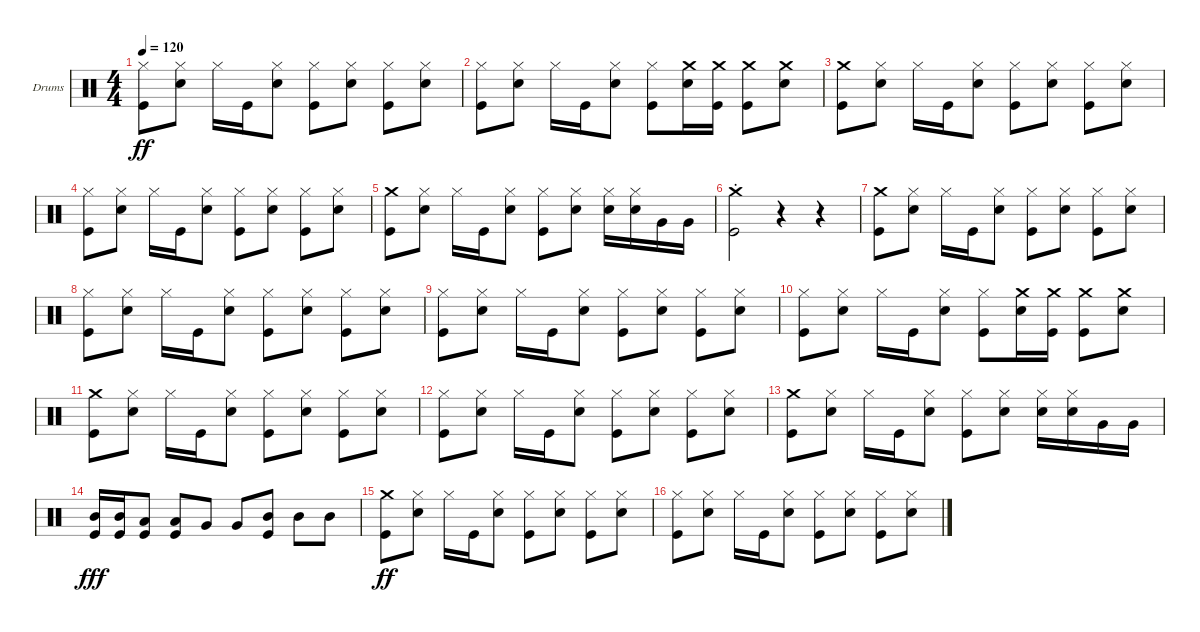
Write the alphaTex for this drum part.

\bracketExtendMode groupsimilarinstruments
\firstSystemTrackNameOrientation horizontal
\otherSystemsTrackNameOrientation horizontal
\track ("Drumkit" "Drums") {instrument percussion}
\staff {score}
\articulation defaults
\ts (4 4)
\tempo 120
\clef neutral
\ks c
("Kick (hit)" "Hi-Hat (closed)").8{dy ff} ("Snare (hit) 2" "Hi-Hat (closed)").8 "Hi-Hat (closed)".16 "Kick (hit)".16 ("Snare (hit) 2" "Hi-Hat (closed)").8 ("Kick (hit)" "Hi-Hat (closed)").8 ("Snare (hit) 2" "Hi-Hat (closed)").8 ("Kick (hit)" "Hi-Hat (closed)").8 ("Snare (hit) 2" "Hi-Hat (closed)").8 |
("Kick (hit)" "Hi-Hat (closed)").8 ("Snare (hit) 2" "Hi-Hat (closed)").8 "Hi-Hat (closed)".16 "Kick (hit)".16 ("Snare (hit) 2" "Hi-Hat (closed)").8 ("Kick (hit)" "Hi-Hat (closed)").8 ("Snare (hit) 2" "Crash medium (hit)").16 ("Kick (hit)" "Crash medium (hit)").16 ("Kick (hit)" "Crash medium (hit)").8 ("Snare (hit) 2" "Crash medium (hit)").8 |
("Kick (hit)" "Crash medium (hit)").8 ("Snare (hit) 2" "Hi-Hat (closed)").8 "Hi-Hat (closed)".16 "Kick (hit)".16 ("Snare (hit) 2" "Hi-Hat (closed)").8 ("Kick (hit)" "Hi-Hat (closed)").8 ("Snare (hit) 2" "Hi-Hat (closed)").8 ("Kick (hit)" "Hi-Hat (closed)").8 ("Snare (hit) 2" "Hi-Hat (closed)").8 |
("Kick (hit)" "Hi-Hat (closed)").8 ("Snare (hit) 2" "Hi-Hat (closed)").8 "Hi-Hat (closed)".16 "Kick (hit)".16 ("Snare (hit) 2" "Hi-Hat (closed)").8 ("Kick (hit)" "Hi-Hat (closed)").8 ("Snare (hit) 2" "Hi-Hat (closed)").8 ("Kick (hit)" "Hi-Hat (closed)").8 ("Snare (hit) 2" "Hi-Hat (closed)").8 |
("Kick (hit)" "Crash medium (hit)").8 ("Snare (hit) 2" "Hi-Hat (closed)").8 "Hi-Hat (closed)".16 "Kick (hit)".16 ("Snare (hit) 2" "Hi-Hat (closed)").8 ("Kick (hit)" "Hi-Hat (closed)").8 ("Snare (hit) 2" "Hi-Hat (closed)").8 ("Snare (hit) 2" "Hi-Hat (closed)").16 ("Snare (hit) 2" "Hi-Hat (closed)").16 "Very Low Tom (hit)".16 "Very Low Tom (hit)".16 |
("Kick (hit)" "Crash medium (hit)"{st}).2 r.4 r.4 |
("Kick (hit)" "Crash medium (hit)").8 ("Snare (hit) 2" "Hi-Hat (closed)").8 "Hi-Hat (closed)".16 "Kick (hit)".16 ("Snare (hit) 2" "Hi-Hat (closed)").8 ("Kick (hit)" "Hi-Hat (closed)").8 ("Snare (hit) 2" "Hi-Hat (closed)").8 ("Kick (hit)" "Hi-Hat (closed)").8 ("Snare (hit) 2" "Hi-Hat (closed)").8 |
("Kick (hit)" "Hi-Hat (closed)").8 ("Snare (hit) 2" "Hi-Hat (closed)").8 "Hi-Hat (closed)".16 "Kick (hit)".16 ("Snare (hit) 2" "Hi-Hat (closed)").8 ("Kick (hit)" "Hi-Hat (closed)").8 ("Snare (hit) 2" "Hi-Hat (closed)").8 ("Kick (hit)" "Hi-Hat (closed)").8 ("Snare (hit) 2" "Hi-Hat (closed)").8 |
("Kick (hit)" "Hi-Hat (closed)").8 ("Snare (hit) 2" "Hi-Hat (closed)").8 "Hi-Hat (closed)".16 "Kick (hit)".16 ("Snare (hit) 2" "Hi-Hat (closed)").8 ("Kick (hit)" "Hi-Hat (closed)").8 ("Snare (hit) 2" "Hi-Hat (closed)").8 ("Kick (hit)" "Hi-Hat (closed)").8 ("Snare (hit) 2" "Hi-Hat (closed)").8 |
("Kick (hit)" "Hi-Hat (closed)").8 ("Snare (hit) 2" "Hi-Hat (closed)").8 "Hi-Hat (closed)".16 "Kick (hit)".16 ("Snare (hit) 2" "Hi-Hat (closed)").8 ("Kick (hit)" "Hi-Hat (closed)").8 ("Snare (hit) 2" "Crash medium (hit)").16 ("Kick (hit)" "Crash medium (hit)").16 ("Kick (hit)" "Crash medium (hit)").8 ("Snare (hit) 2" "Crash medium (hit)").8 |
("Kick (hit)" "Crash medium (hit)").8 ("Snare (hit) 2" "Hi-Hat (closed)").8 "Hi-Hat (closed)".16 "Kick (hit)".16 ("Snare (hit) 2" "Hi-Hat (closed)").8 ("Kick (hit)" "Hi-Hat (closed)").8 ("Snare (hit) 2" "Hi-Hat (closed)").8 ("Kick (hit)" "Hi-Hat (closed)").8 ("Snare (hit) 2" "Hi-Hat (closed)").8 |
("Kick (hit)" "Hi-Hat (closed)").8 ("Snare (hit) 2" "Hi-Hat (closed)").8 "Hi-Hat (closed)".16 "Kick (hit)".16 ("Snare (hit) 2" "Hi-Hat (closed)").8 ("Kick (hit)" "Hi-Hat (closed)").8 ("Snare (hit) 2" "Hi-Hat (closed)").8 ("Kick (hit)" "Hi-Hat (closed)").8 ("Snare (hit) 2" "Hi-Hat (closed)").8 |
("Kick (hit)" "Crash medium (hit)").8 ("Snare (hit) 2" "Hi-Hat (closed)").8 "Hi-Hat (closed)".16 "Kick (hit)".16 ("Snare (hit) 2" "Hi-Hat (closed)").8 ("Kick (hit)" "Hi-Hat (closed)").8 ("Snare (hit) 2" "Hi-Hat (closed)").8 ("Snare (hit) 2" "Hi-Hat (closed)").16 ("Snare (hit) 2" "Hi-Hat (closed)").16 "Very Low Tom (hit)".16 "Very Low Tom (hit)".16 |
("Mid Tom (hit)" "Kick (hit)").16{dy fff} ("Mid Tom (hit)" "Kick (hit)").16 ("Low Tom (hit)" "Kick (hit)").8 ("Low Tom (hit)" "Kick (hit)").8 "Very Low Tom (hit)".8 "Very Low Tom (hit)".8 ("Mid Tom (hit)" "Kick (hit)").8 "Mid Tom (hit)".8 "Mid Tom (hit)".8 |
("Kick (hit)" "Crash medium (hit)").8{dy ff} ("Snare (hit) 2" "Hi-Hat (closed)").8 "Hi-Hat (closed)".16 "Kick (hit)".16 ("Snare (hit) 2" "Hi-Hat (closed)").8 ("Kick (hit)" "Hi-Hat (closed)").8 ("Snare (hit) 2" "Hi-Hat (closed)").8 ("Kick (hit)" "Hi-Hat (closed)").8 ("Snare (hit) 2" "Hi-Hat (closed)").8 |
("Kick (hit)" "Hi-Hat (closed)").8 ("Snare (hit) 2" "Hi-Hat (closed)").8 "Hi-Hat (closed)".16 "Kick (hit)".16 ("Snare (hit) 2" "Hi-Hat (closed)").8 ("Kick (hit)" "Hi-Hat (closed)").8 ("Snare (hit) 2" "Hi-Hat (closed)").8 ("Kick (hit)" "Hi-Hat (closed)").8 ("Snare (hit) 2" "Hi-Hat (closed)").8
